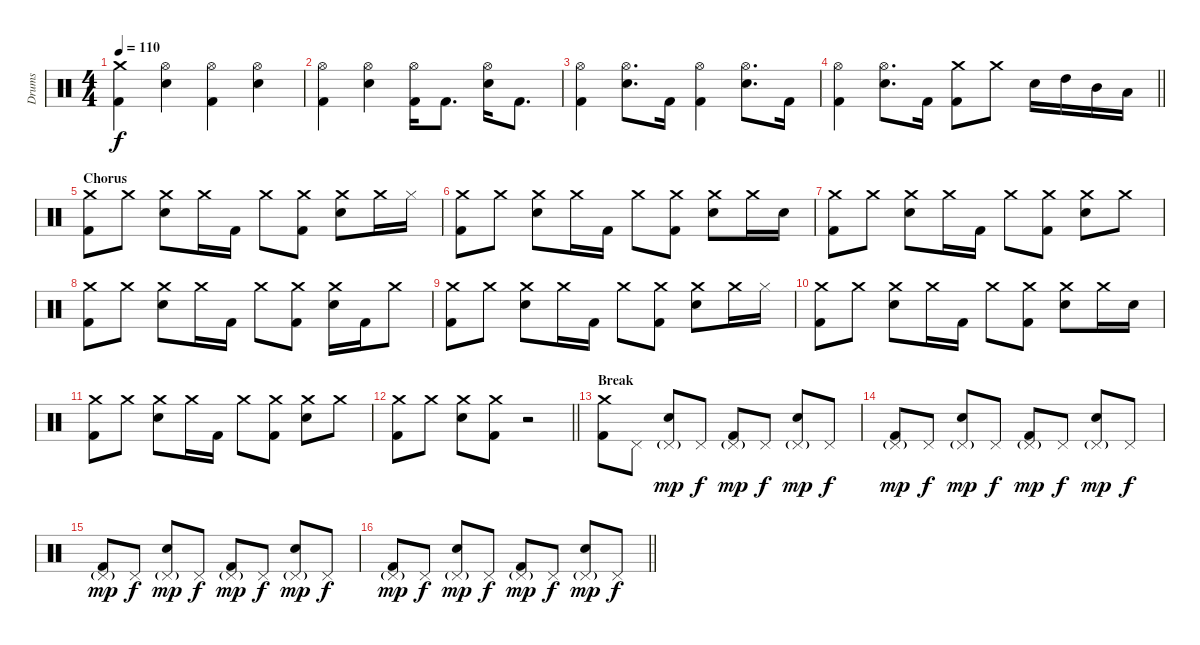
\track ("Drums" "Drums") {instrument percussion}
\staff {score}
\articulation defaults
\ts (4 4)
\tempo 110
\clef neutral
\ks c
("Crash medium (hit)" "Kick (hit) 2").4{dy f} ("Hi-Hat (open)" "Electric Snare (hit)").4 ("Hi-Hat (open)" "Kick (hit) 2").4 ("Hi-Hat (open)" "Electric Snare (hit)").4 |
("Hi-Hat (open)" "Kick (hit) 2").4 ("Hi-Hat (open)" "Electric Snare (hit)").4 ("Hi-Hat (open)" "Kick (hit) 2").16 "Kick (hit) 2".8{d} ("Hi-Hat (open)" "Electric Snare (hit)").16 "Kick (hit) 2".8{d} |
("Hi-Hat (open)" "Kick (hit) 2").4 ("Hi-Hat (open)" "Electric Snare (hit)").8{d} "Kick (hit) 2".16 ("Hi-Hat (open)" "Kick (hit) 2").4 ("Hi-Hat (open)" "Electric Snare (hit)").8{d} "Kick (hit) 2".16 |
\barLineRight lightlight
("Hi-Hat (open)" "Kick (hit) 2").4 ("Hi-Hat (open)" "Electric Snare (hit)").8{d} "Kick (hit) 2".16 ("Crash medium (hit)" "Kick (hit) 2").8 "Crash medium (hit)".8 "Electric Snare (hit)".16 "High Tom (hit)".16 "Mid Tom (hit)".16 "Low Tom (hit)".16 |
\section ("" "Chorus")
("Crash medium (hit)" "Kick (hit) 2").8 "Crash medium (hit)".8 ("Crash medium (hit)" "Electric Snare (hit)").8 "Crash medium (hit)".16 "Kick (hit) 2".16 "Crash medium (hit)".8 ("Crash medium (hit)" "Kick (hit) 2").8 ("Crash medium (hit)" "Electric Snare (hit)").8 "Crash medium (hit)".16 "Hi-Hat (closed)".16 |
("Crash medium (hit)" "Kick (hit) 2").8 "Crash medium (hit)".8 ("Crash medium (hit)" "Electric Snare (hit)").8 "Crash medium (hit)".16 "Kick (hit) 2".16 "Crash medium (hit)".8 ("Crash medium (hit)" "Kick (hit) 2").8 ("Crash medium (hit)" "Electric Snare (hit)").8 "Crash medium (hit)".16 "Electric Snare (hit)".16 |
("Crash medium (hit)" "Kick (hit) 2").8 "Crash medium (hit)".8 ("Crash medium (hit)" "Electric Snare (hit)").8 "Crash medium (hit)".16 "Kick (hit) 2".16 "Crash medium (hit)".8 ("Crash medium (hit)" "Kick (hit) 2").8 ("Crash medium (hit)" "Electric Snare (hit)").8 "Crash medium (hit)".8 |
("Crash medium (hit)" "Kick (hit) 2").8 "Crash medium (hit)".8 ("Crash medium (hit)" "Electric Snare (hit)").8 "Crash medium (hit)".16 "Kick (hit) 2".16 "Crash medium (hit)".8 ("Crash medium (hit)" "Kick (hit) 2").8 ("Crash medium (hit)" "Electric Snare (hit)").16 "Kick (hit) 2".16 "Crash medium (hit)".8 |
("Crash medium (hit)" "Kick (hit) 2").8 "Crash medium (hit)".8 ("Crash medium (hit)" "Electric Snare (hit)").8 "Crash medium (hit)".16 "Kick (hit) 2".16 "Crash medium (hit)".8 ("Crash medium (hit)" "Kick (hit) 2").8 ("Crash medium (hit)" "Electric Snare (hit)").8 "Crash medium (hit)".16 "Hi-Hat (closed)".16 |
("Crash medium (hit)" "Kick (hit) 2").8 "Crash medium (hit)".8 ("Crash medium (hit)" "Electric Snare (hit)").8 "Crash medium (hit)".16 "Kick (hit) 2".16 "Crash medium (hit)".8 ("Crash medium (hit)" "Kick (hit) 2").8 ("Crash medium (hit)" "Electric Snare (hit)").8 "Crash medium (hit)".16 "Electric Snare (hit)".16 |
("Crash medium (hit)" "Kick (hit) 2").8 "Crash medium (hit)".8 ("Crash medium (hit)" "Electric Snare (hit)").8 "Crash medium (hit)".16 "Kick (hit) 2".16 "Crash medium (hit)".8 ("Crash medium (hit)" "Kick (hit) 2").8 ("Crash medium (hit)" "Electric Snare (hit)").8 "Crash medium (hit)".8 |
\barLineRight lightlight
("Crash medium (hit)" "Kick (hit) 2").8 "Crash medium (hit)".8 ("Crash medium (hit)" "Electric Snare (hit)").8 ("Crash medium (hit)" "Kick (hit) 2").8 r.2 |
\section ("" "Break")
("Crash medium (hit)" "Kick (hit) 2").8 "Pedal Hi-Hat (hit)".8 ("Pedal Hi-Hat (hit)"{g} "Electric Snare (hit)").8{dy mp} "Pedal Hi-Hat (hit)".8{dy f} ("Pedal Hi-Hat (hit)"{g} "Kick (hit) 2").8{dy mp} "Pedal Hi-Hat (hit)".8{dy f} ("Pedal Hi-Hat (hit)"{g} "Electric Snare (hit)").8{dy mp} "Pedal Hi-Hat (hit)".8{dy f} |
("Pedal Hi-Hat (hit)"{g} "Kick (hit) 2").8{dy mp} "Pedal Hi-Hat (hit)".8{dy f} ("Pedal Hi-Hat (hit)"{g} "Electric Snare (hit)").8{dy mp} "Pedal Hi-Hat (hit)".8{dy f} ("Pedal Hi-Hat (hit)"{g} "Kick (hit) 2").8{dy mp} "Pedal Hi-Hat (hit)".8{dy f} ("Pedal Hi-Hat (hit)"{g} "Electric Snare (hit)").8{dy mp} "Pedal Hi-Hat (hit)".8{dy f} |
("Pedal Hi-Hat (hit)"{g} "Kick (hit) 2").8{dy mp} "Pedal Hi-Hat (hit)".8{dy f} ("Pedal Hi-Hat (hit)"{g} "Electric Snare (hit)").8{dy mp} "Pedal Hi-Hat (hit)".8{dy f} ("Pedal Hi-Hat (hit)"{g} "Kick (hit) 2").8{dy mp} "Pedal Hi-Hat (hit)".8{dy f} ("Pedal Hi-Hat (hit)"{g} "Electric Snare (hit)").8{dy mp} "Pedal Hi-Hat (hit)".8{dy f} |
\barLineRight lightlight
("Pedal Hi-Hat (hit)"{g} "Kick (hit) 2").8{dy mp} "Pedal Hi-Hat (hit)".8{dy f} ("Pedal Hi-Hat (hit)"{g} "Electric Snare (hit)").8{dy mp} "Pedal Hi-Hat (hit)".8{dy f} ("Pedal Hi-Hat (hit)"{g} "Kick (hit) 2").8{dy mp} "Pedal Hi-Hat (hit)".8{dy f} ("Pedal Hi-Hat (hit)"{g} "Electric Snare (hit)").8{dy mp} "Pedal Hi-Hat (hit)".8{dy f}
